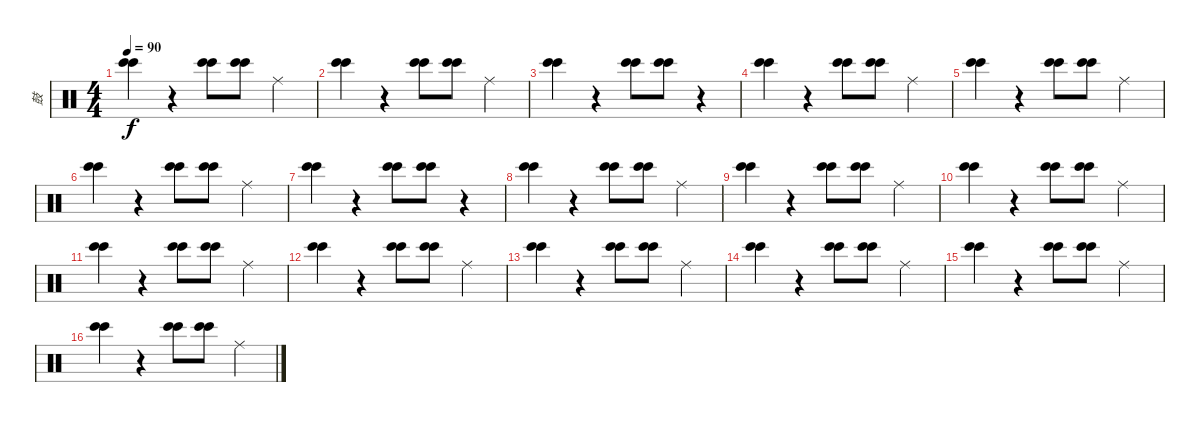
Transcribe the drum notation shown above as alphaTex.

\track ("鼓" "鼓") {instrument percussion}
\staff {score}
\articulation defaults
\ts (4 4)
\tempo 90
\clef neutral
\ks c
("Bongo High (hit)" "Bongo High (hit)").4{dy f} r.4 ("Bongo High (hit)" "Bongo High (hit)").8 ("Bongo High (hit)" "Bongo High (hit)").8 "Ride (middle)".4 |
("Bongo High (hit)" "Bongo High (hit)").4 r.4 ("Bongo High (hit)" "Bongo High (hit)").8 ("Bongo High (hit)" "Bongo High (hit)").8 "Ride (middle)".4 |
("Bongo High (hit)" "Bongo High (hit)").4 r.4 ("Bongo High (hit)" "Bongo High (hit)").8 ("Bongo High (hit)" "Bongo High (hit)").8 r.4 |
("Bongo High (hit)" "Bongo High (hit)").4 r.4 ("Bongo High (hit)" "Bongo High (hit)").8 ("Bongo High (hit)" "Bongo High (hit)").8 "Ride (middle)".4 |
("Bongo High (hit)" "Bongo High (hit)").4 r.4 ("Bongo High (hit)" "Bongo High (hit)").8 ("Bongo High (hit)" "Bongo High (hit)").8 "Ride (middle)".4 |
("Bongo High (hit)" "Bongo High (hit)").4 r.4 ("Bongo High (hit)" "Bongo High (hit)").8 ("Bongo High (hit)" "Bongo High (hit)").8 "Ride (middle)".4 |
("Bongo High (hit)" "Bongo High (hit)").4 r.4 ("Bongo High (hit)" "Bongo High (hit)").8 ("Bongo High (hit)" "Bongo High (hit)").8 r.4 |
("Bongo High (hit)" "Bongo High (hit)").4 r.4 ("Bongo High (hit)" "Bongo High (hit)").8 ("Bongo High (hit)" "Bongo High (hit)").8 "Ride (middle)".4 |
("Bongo High (hit)" "Bongo High (hit)").4 r.4 ("Bongo High (hit)" "Bongo High (hit)").8 ("Bongo High (hit)" "Bongo High (hit)").8 "Ride (middle)".4 |
("Bongo High (hit)" "Bongo High (hit)").4 r.4 ("Bongo High (hit)" "Bongo High (hit)").8 ("Bongo High (hit)" "Bongo High (hit)").8 "Ride (middle)".4 |
("Bongo High (hit)" "Bongo High (hit)").4 r.4 ("Bongo High (hit)" "Bongo High (hit)").8 ("Bongo High (hit)" "Bongo High (hit)").8 "Ride (middle)".4 |
("Bongo High (hit)" "Bongo High (hit)").4 r.4 ("Bongo High (hit)" "Bongo High (hit)").8 ("Bongo High (hit)" "Bongo High (hit)").8 "Ride (middle)".4 |
("Bongo High (hit)" "Bongo High (hit)").4 r.4 ("Bongo High (hit)" "Bongo High (hit)").8 ("Bongo High (hit)" "Bongo High (hit)").8 "Ride (middle)".4 |
("Bongo High (hit)" "Bongo High (hit)").4 r.4 ("Bongo High (hit)" "Bongo High (hit)").8 ("Bongo High (hit)" "Bongo High (hit)").8 "Ride (middle)".4 |
("Bongo High (hit)" "Bongo High (hit)").4 r.4 ("Bongo High (hit)" "Bongo High (hit)").8 ("Bongo High (hit)" "Bongo High (hit)").8 "Ride (middle)".4 |
("Bongo High (hit)" "Bongo High (hit)").4 r.4 ("Bongo High (hit)" "Bongo High (hit)").8 ("Bongo High (hit)" "Bongo High (hit)").8 "Ride (middle)".4
